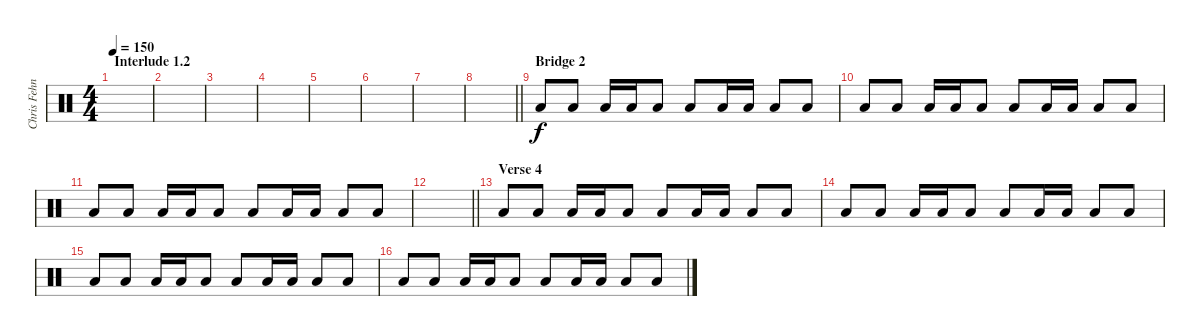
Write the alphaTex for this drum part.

\track ("Chris Fehn" "Chris Fehn") {instrument percussion}
\staff {score}
\articulation defaults
\ts (4 4)
\section ("" "Interlude 1.2")
\tempo 150
\clef neutral
\ks c
|
|
|
|
|
|
|
\barLineRight lightlight
|
\section ("" "Bridge 2")
"Low Floor Tom (hit)".8 "Low Floor Tom (hit)".8 "Low Floor Tom (hit)".16 "Low Floor Tom (hit)".16 "Low Floor Tom (hit)".8 "Low Floor Tom (hit)".8 "Low Floor Tom (hit)".16 "Low Floor Tom (hit)".16 "Low Floor Tom (hit)".8 "Low Floor Tom (hit)".8 |
"Low Floor Tom (hit)".8 "Low Floor Tom (hit)".8 "Low Floor Tom (hit)".16 "Low Floor Tom (hit)".16 "Low Floor Tom (hit)".8 "Low Floor Tom (hit)".8 "Low Floor Tom (hit)".16 "Low Floor Tom (hit)".16 "Low Floor Tom (hit)".8 "Low Floor Tom (hit)".8 |
"Low Floor Tom (hit)".8 "Low Floor Tom (hit)".8 "Low Floor Tom (hit)".16 "Low Floor Tom (hit)".16 "Low Floor Tom (hit)".8 "Low Floor Tom (hit)".8 "Low Floor Tom (hit)".16 "Low Floor Tom (hit)".16 "Low Floor Tom (hit)".8 "Low Floor Tom (hit)".8 |
\barLineRight lightlight
|
\section ("" "Verse 4")
"Low Floor Tom (hit)".8 "Low Floor Tom (hit)".8 "Low Floor Tom (hit)".16 "Low Floor Tom (hit)".16 "Low Floor Tom (hit)".8 "Low Floor Tom (hit)".8 "Low Floor Tom (hit)".16 "Low Floor Tom (hit)".16 "Low Floor Tom (hit)".8 "Low Floor Tom (hit)".8 |
"Low Floor Tom (hit)".8 "Low Floor Tom (hit)".8 "Low Floor Tom (hit)".16 "Low Floor Tom (hit)".16 "Low Floor Tom (hit)".8 "Low Floor Tom (hit)".8 "Low Floor Tom (hit)".16 "Low Floor Tom (hit)".16 "Low Floor Tom (hit)".8 "Low Floor Tom (hit)".8 |
"Low Floor Tom (hit)".8 "Low Floor Tom (hit)".8 "Low Floor Tom (hit)".16 "Low Floor Tom (hit)".16 "Low Floor Tom (hit)".8 "Low Floor Tom (hit)".8 "Low Floor Tom (hit)".16 "Low Floor Tom (hit)".16 "Low Floor Tom (hit)".8 "Low Floor Tom (hit)".8 |
"Low Floor Tom (hit)".8 "Low Floor Tom (hit)".8 "Low Floor Tom (hit)".16 "Low Floor Tom (hit)".16 "Low Floor Tom (hit)".8 "Low Floor Tom (hit)".8 "Low Floor Tom (hit)".16 "Low Floor Tom (hit)".16 "Low Floor Tom (hit)".8 "Low Floor Tom (hit)".8
